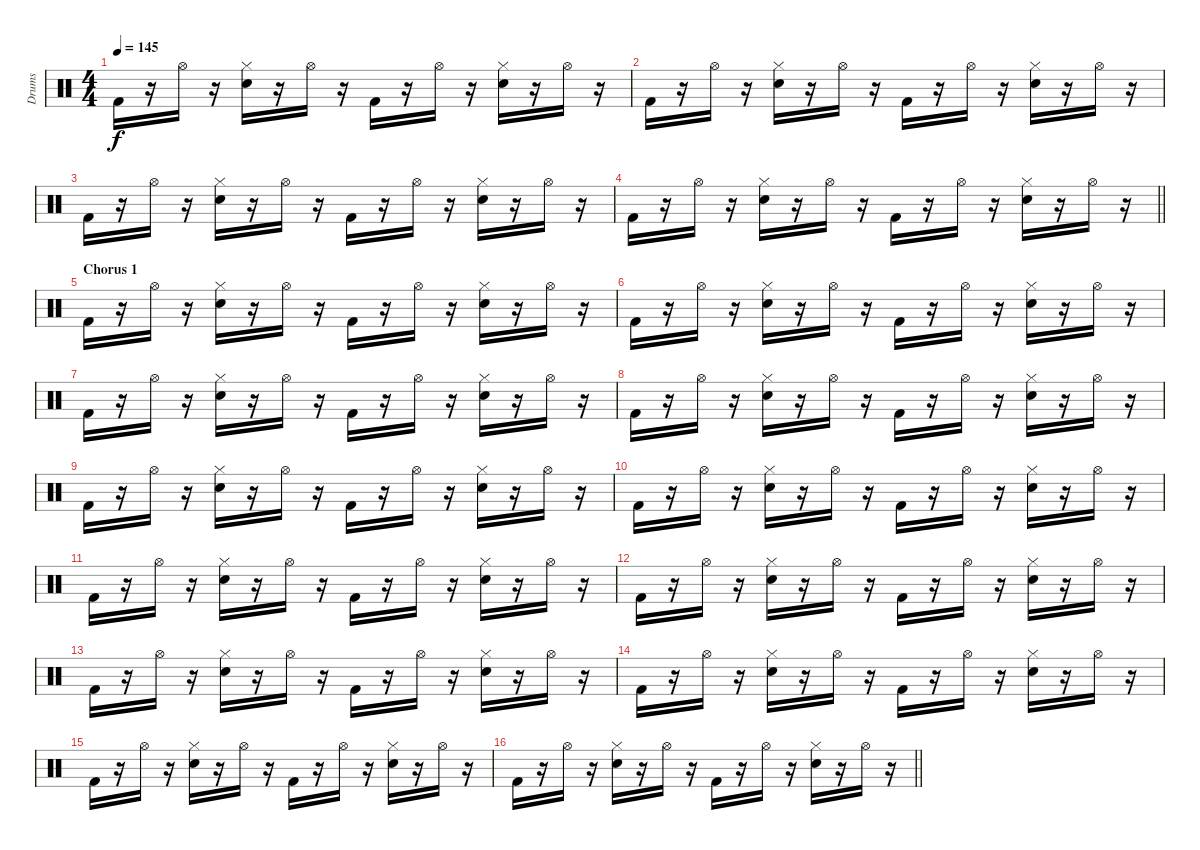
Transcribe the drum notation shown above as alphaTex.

\track ("Drums" "Drums") {instrument percussion}
\staff {score}
\articulation defaults
\ts (4 4)
\tempo 145
\clef neutral
\ks c "Kick (hit) 2".16{dy f}
r.16 "Hi-Hat (open)".16 r.16 ("Snare (hit) 2" "Hi-Hat (closed)").16 r.16 "Hi-Hat (open)".16 r.16 "Kick (hit) 2".16 r.16 "Hi-Hat (open)".16 r.16 ("Snare (hit) 2" "Hi-Hat (closed)").16 r.16 "Hi-Hat (open)".16 r.16 |
"Kick (hit) 2".16 r.16 "Hi-Hat (open)".16 r.16 ("Snare (hit) 2" "Hi-Hat (closed)").16 r.16 "Hi-Hat (open)".16 r.16 "Kick (hit) 2".16 r.16 "Hi-Hat (open)".16 r.16 ("Snare (hit) 2" "Hi-Hat (closed)").16 r.16 "Hi-Hat (open)".16 r.16 |
"Kick (hit) 2".16 r.16 "Hi-Hat (open)".16 r.16 ("Snare (hit) 2" "Hi-Hat (closed)").16 r.16 "Hi-Hat (open)".16 r.16 "Kick (hit) 2".16 r.16 "Hi-Hat (open)".16 r.16 ("Snare (hit) 2" "Hi-Hat (closed)").16 r.16 "Hi-Hat (open)".16 r.16 |
\barLineRight lightlight "Kick (hit) 2".16
r.16 "Hi-Hat (open)".16 r.16 ("Snare (hit) 2" "Hi-Hat (closed)").16 r.16 "Hi-Hat (open)".16 r.16 "Kick (hit) 2".16 r.16 "Hi-Hat (open)".16 r.16 ("Snare (hit) 2" "Hi-Hat (closed)").16 r.16 "Hi-Hat (open)".16 r.16 |
\section ("" "Chorus 1")
"Kick (hit) 2".16 r.16 "Hi-Hat (open)".16 r.16 ("Snare (hit) 2" "Hi-Hat (closed)").16 r.16 "Hi-Hat (open)".16 r.16 "Kick (hit) 2".16 r.16 "Hi-Hat (open)".16 r.16 ("Snare (hit) 2" "Hi-Hat (closed)").16 r.16 "Hi-Hat (open)".16 r.16 |
"Kick (hit) 2".16 r.16 "Hi-Hat (open)".16 r.16 ("Snare (hit) 2" "Hi-Hat (closed)").16 r.16 "Hi-Hat (open)".16 r.16 "Kick (hit) 2".16 r.16 "Hi-Hat (open)".16 r.16 ("Snare (hit) 2" "Hi-Hat (closed)").16 r.16 "Hi-Hat (open)".16 r.16 |
"Kick (hit) 2".16 r.16 "Hi-Hat (open)".16 r.16 ("Snare (hit) 2" "Hi-Hat (closed)").16 r.16 "Hi-Hat (open)".16 r.16 "Kick (hit) 2".16 r.16 "Hi-Hat (open)".16 r.16 ("Snare (hit) 2" "Hi-Hat (closed)").16 r.16 "Hi-Hat (open)".16 r.16 |
"Kick (hit) 2".16 r.16 "Hi-Hat (open)".16 r.16 ("Snare (hit) 2" "Hi-Hat (closed)").16 r.16 "Hi-Hat (open)".16 r.16 "Kick (hit) 2".16 r.16 "Hi-Hat (open)".16 r.16 ("Snare (hit) 2" "Hi-Hat (closed)").16 r.16 "Hi-Hat (open)".16 r.16 |
"Kick (hit) 2".16 r.16 "Hi-Hat (open)".16 r.16 ("Snare (hit) 2" "Hi-Hat (closed)").16 r.16 "Hi-Hat (open)".16 r.16 "Kick (hit) 2".16 r.16 "Hi-Hat (open)".16 r.16 ("Snare (hit) 2" "Hi-Hat (closed)").16 r.16 "Hi-Hat (open)".16 r.16 |
"Kick (hit) 2".16 r.16 "Hi-Hat (open)".16 r.16 ("Snare (hit) 2" "Hi-Hat (closed)").16 r.16 "Hi-Hat (open)".16 r.16 "Kick (hit) 2".16 r.16 "Hi-Hat (open)".16 r.16 ("Snare (hit) 2" "Hi-Hat (closed)").16 r.16 "Hi-Hat (open)".16 r.16 |
"Kick (hit) 2".16 r.16 "Hi-Hat (open)".16 r.16 ("Snare (hit) 2" "Hi-Hat (closed)").16 r.16 "Hi-Hat (open)".16 r.16 "Kick (hit) 2".16 r.16 "Hi-Hat (open)".16 r.16 ("Snare (hit) 2" "Hi-Hat (closed)").16 r.16 "Hi-Hat (open)".16 r.16 |
"Kick (hit) 2".16 r.16 "Hi-Hat (open)".16 r.16 ("Snare (hit) 2" "Hi-Hat (closed)").16 r.16 "Hi-Hat (open)".16 r.16 "Kick (hit) 2".16 r.16 "Hi-Hat (open)".16 r.16 ("Snare (hit) 2" "Hi-Hat (closed)").16 r.16 "Hi-Hat (open)".16 r.16 |
"Kick (hit) 2".16 r.16 "Hi-Hat (open)".16 r.16 ("Snare (hit) 2" "Hi-Hat (closed)").16 r.16 "Hi-Hat (open)".16 r.16 "Kick (hit) 2".16 r.16 "Hi-Hat (open)".16 r.16 ("Snare (hit) 2" "Hi-Hat (closed)").16 r.16 "Hi-Hat (open)".16 r.16 |
"Kick (hit) 2".16 r.16 "Hi-Hat (open)".16 r.16 ("Snare (hit) 2" "Hi-Hat (closed)").16 r.16 "Hi-Hat (open)".16 r.16 "Kick (hit) 2".16 r.16 "Hi-Hat (open)".16 r.16 ("Snare (hit) 2" "Hi-Hat (closed)").16 r.16 "Hi-Hat (open)".16 r.16 |
"Kick (hit) 2".16 r.16 "Hi-Hat (open)".16 r.16 ("Snare (hit) 2" "Hi-Hat (closed)").16 r.16 "Hi-Hat (open)".16 r.16 "Kick (hit) 2".16 r.16 "Hi-Hat (open)".16 r.16 ("Snare (hit) 2" "Hi-Hat (closed)").16 r.16 "Hi-Hat (open)".16 r.16 |
\barLineRight lightlight "Kick (hit) 2".16
r.16 "Hi-Hat (open)".16 r.16 ("Snare (hit) 2" "Hi-Hat (closed)").16 r.16 "Hi-Hat (open)".16 r.16 "Kick (hit) 2".16 r.16 "Hi-Hat (open)".16 r.16 ("Snare (hit) 2" "Hi-Hat (closed)").16 r.16 "Hi-Hat (open)".16 r.16
